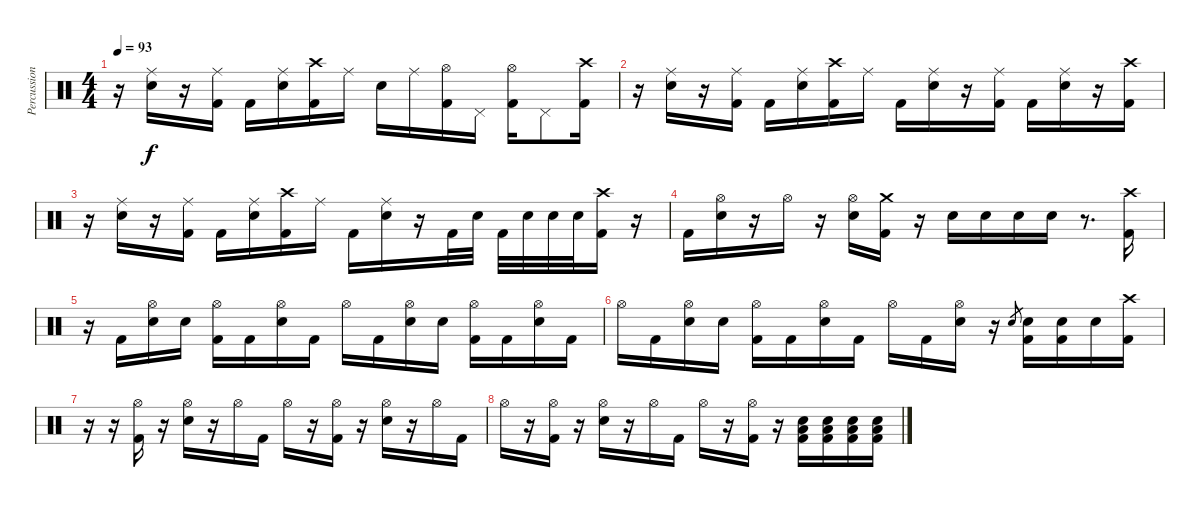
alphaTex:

\track ("Percussion" "Percussion") {instrument percussion}
\staff {score}
\articulation defaults
\ts (4 4)
\tempo 93
\clef neutral
\ks c
r.16{dy f} ("Ride (middle)" "Electric Snare (hit)").16 r.16 ("Ride (middle)" "Kick (hit) 2").16 "Kick (hit) 2".16 ("Ride (middle)" "Electric Snare (hit)").16 ("Crash high (hit)" "Kick (hit) 2").16 "Ride (middle)".16 "Electric Snare (hit)".16 "Ride (middle)".16 ("Hi-Hat (open)" "Kick (hit) 2").16 "Pedal Hi-Hat (hit)".16 ("Hi-Hat (open)" "Kick (hit) 2").16 "Pedal Hi-Hat (hit)".8 ("Crash high (hit)" "Kick (hit) 2").16 |
r.16 ("Ride (middle)" "Electric Snare (hit)").16 r.16 ("Ride (middle)" "Kick (hit) 2").16 "Kick (hit) 2".16 ("Ride (middle)" "Electric Snare (hit)").16 ("Crash high (hit)" "Kick (hit) 2").16 "Ride (middle)".16 "Kick (hit) 2".16 ("Ride (middle)" "Electric Snare (hit)").16 r.16 ("Ride (middle)" "Kick (hit) 2").16 "Kick (hit) 2".16 ("Ride (middle)" "Electric Snare (hit)").16 r.16 ("Crash high (hit)" "Kick (hit) 2").16 |
r.16 ("Ride (middle)" "Electric Snare (hit)").16 r.16 ("Ride (middle)" "Kick (hit) 2").16 "Kick (hit) 2".16 ("Ride (middle)" "Electric Snare (hit)").16 ("Crash high (hit)" "Kick (hit) 2").16 "Ride (middle)".16 "Kick (hit) 2".16 ("Ride (middle)" "Electric Snare (hit)").16 r.16 "Kick (hit) 2".32 "Electric Snare (hit)".32 "Kick (hit) 2".32 "Electric Snare (hit)".32 "Electric Snare (hit)".32 "Electric Snare (hit)".32 ("Crash high (hit)" "Kick (hit) 2").16 r.16 |
"Kick (hit) 2".16 ("Hi-Hat (open)" "Electric Snare (hit)").16 r.16 "Hi-Hat (open)".16 r.16 ("Hi-Hat (open)" "Electric Snare (hit)").16 ("Crash medium (hit)" "Kick (hit) 2").16 r.16 "Electric Snare (hit)".16 "Electric Snare (hit)".16 "Electric Snare (hit)".16 "Electric Snare (hit)".16 r.8{d} ("Crash high (hit)" "Kick (hit) 2").16 |
r.16 "Kick (hit) 2".16 ("Hi-Hat (open)" "Electric Snare (hit)").16 "Electric Snare (hit)".16 ("Hi-Hat (open)" "Kick (hit) 2").16 "Kick (hit) 2".16 ("Hi-Hat (open)" "Electric Snare (hit)").16 "Kick (hit) 2".16 "Hi-Hat (open)".16 "Kick (hit) 2".16 ("Hi-Hat (open)" "Electric Snare (hit)").16 "Electric Snare (hit)".16 ("Hi-Hat (open)" "Kick (hit) 2").16 "Kick (hit) 2".16 ("Hi-Hat (open)" "Electric Snare (hit)").16 "Kick (hit) 2".16 |
"Hi-Hat (open)".16 "Kick (hit) 2".16 ("Hi-Hat (open)" "Electric Snare (hit)").16 "Electric Snare (hit)".16 ("Hi-Hat (open)" "Kick (hit) 2").16 "Kick (hit) 2".16 ("Hi-Hat (open)" "Electric Snare (hit)").16 "Kick (hit) 2".16 "Hi-Hat (open)".16 "Kick (hit) 2".16 ("Hi-Hat (open)" "Electric Snare (hit)").16 r.16 "Electric Snare (hit)".8{gr} ("Electric Snare (hit)" "Kick (hit) 2").16 ("Electric Snare (hit)" "Kick (hit) 2").16 "Electric Snare (hit)".16 ("Crash high (hit)" "Kick (hit) 2").16 |
r.16 r.16 ("Hi-Hat (open)" "Kick (hit) 2").16 r.16 ("Hi-Hat (open)" "Electric Snare (hit)").16 r.16 "Hi-Hat (open)".16 "Kick (hit) 2".16 "Hi-Hat (open)".16 r.16 ("Hi-Hat (open)" "Kick (hit) 2").16 r.16 ("Hi-Hat (open)" "Electric Snare (hit)").16 r.16 "Hi-Hat (open)".16 "Kick (hit) 2".16 |
"Hi-Hat (open)".16 r.16 ("Hi-Hat (open)" "Kick (hit) 2").16 r.16 ("Hi-Hat (open)" "Electric Snare (hit)").16 r.16 "Hi-Hat (open)".16 "Kick (hit) 2".16 "Hi-Hat (open)".16 r.16 ("Hi-Hat (open)" "Kick (hit) 2").16 r.16 ("Low Floor Tom (hit)" "Electric Snare (hit)" "Kick (hit) 2").16 ("Low Floor Tom (hit)" "Electric Snare (hit)" "Kick (hit) 2").16 ("Low Floor Tom (hit)" "Electric Snare (hit)" "Kick (hit) 2").16 ("Low Floor Tom (hit)" "Electric Snare (hit)" "Kick (hit) 2").16
